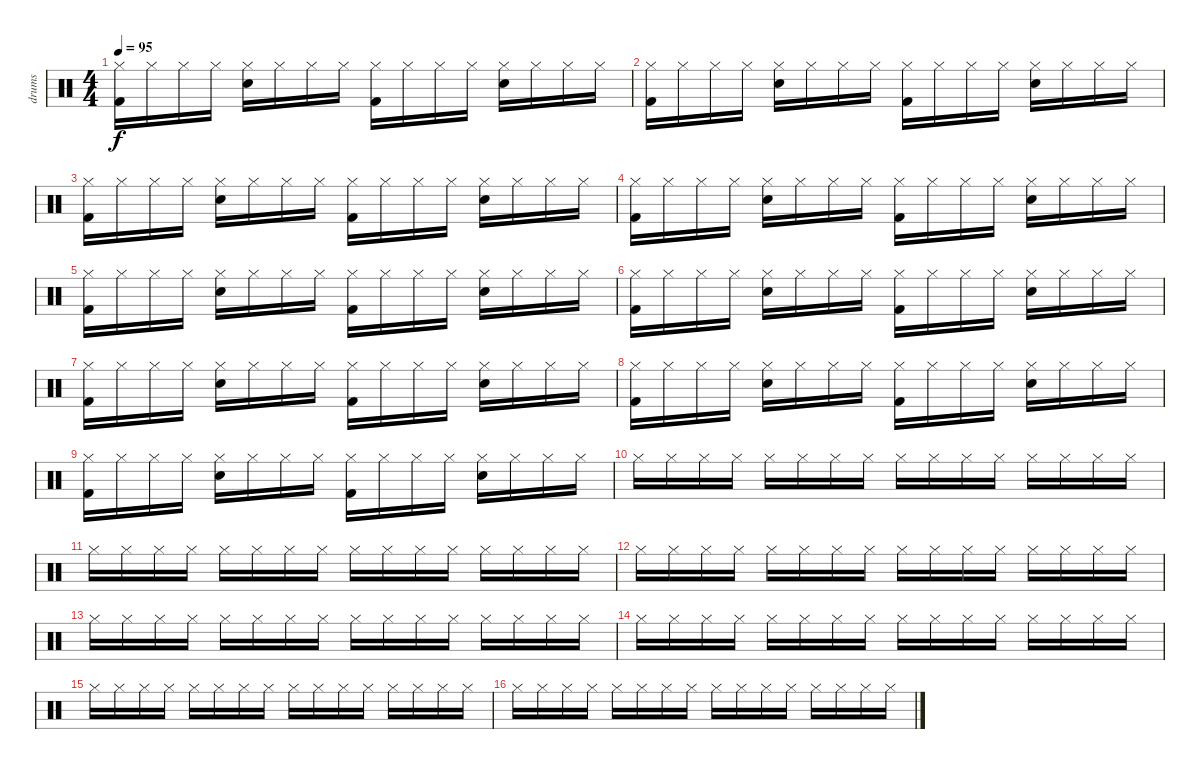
\track ("drums" "drums") {instrument percussion}
\staff {score}
\articulation defaults
\ts (4 4)
\tempo 95
\clef neutral
\ks c
("Kick (hit) 2" "Hi-Hat (closed)").16{dy f} "Hi-Hat (closed)".16 "Hi-Hat (closed)".16 "Hi-Hat (closed)".16 ("Snare (hit) 2" "Hi-Hat (closed)").16 "Hi-Hat (closed)".16 "Hi-Hat (closed)".16 "Hi-Hat (closed)".16 ("Kick (hit) 2" "Hi-Hat (closed)").16 "Hi-Hat (closed)".16 "Hi-Hat (closed)".16 "Hi-Hat (closed)".16 ("Snare (hit) 2" "Hi-Hat (closed)").16 "Hi-Hat (closed)".16 "Hi-Hat (closed)".16 "Hi-Hat (closed)".16 |
("Kick (hit) 2" "Hi-Hat (closed)").16 "Hi-Hat (closed)".16 "Hi-Hat (closed)".16 "Hi-Hat (closed)".16 ("Snare (hit) 2" "Hi-Hat (closed)").16 "Hi-Hat (closed)".16 "Hi-Hat (closed)".16 "Hi-Hat (closed)".16 ("Kick (hit) 2" "Hi-Hat (closed)").16 "Hi-Hat (closed)".16 "Hi-Hat (closed)".16 "Hi-Hat (closed)".16 ("Snare (hit) 2" "Hi-Hat (closed)").16 "Hi-Hat (closed)".16 "Hi-Hat (closed)".16 "Hi-Hat (closed)".16 |
("Kick (hit) 2" "Hi-Hat (closed)").16 "Hi-Hat (closed)".16 "Hi-Hat (closed)".16 "Hi-Hat (closed)".16 ("Snare (hit) 2" "Hi-Hat (closed)").16 "Hi-Hat (closed)".16 "Hi-Hat (closed)".16 "Hi-Hat (closed)".16 ("Kick (hit) 2" "Hi-Hat (closed)").16 "Hi-Hat (closed)".16 "Hi-Hat (closed)".16 "Hi-Hat (closed)".16 ("Snare (hit) 2" "Hi-Hat (closed)").16 "Hi-Hat (closed)".16 "Hi-Hat (closed)".16 "Hi-Hat (closed)".16 |
("Kick (hit) 2" "Hi-Hat (closed)").16 "Hi-Hat (closed)".16 "Hi-Hat (closed)".16 "Hi-Hat (closed)".16 ("Snare (hit) 2" "Hi-Hat (closed)").16 "Hi-Hat (closed)".16 "Hi-Hat (closed)".16 "Hi-Hat (closed)".16 ("Kick (hit) 2" "Hi-Hat (closed)").16 "Hi-Hat (closed)".16 "Hi-Hat (closed)".16 "Hi-Hat (closed)".16 ("Snare (hit) 2" "Hi-Hat (closed)").16 "Hi-Hat (closed)".16 "Hi-Hat (closed)".16 "Hi-Hat (closed)".16 |
("Kick (hit) 2" "Hi-Hat (closed)").16 "Hi-Hat (closed)".16 "Hi-Hat (closed)".16 "Hi-Hat (closed)".16 ("Snare (hit) 2" "Hi-Hat (closed)").16 "Hi-Hat (closed)".16 "Hi-Hat (closed)".16 "Hi-Hat (closed)".16 ("Kick (hit) 2" "Hi-Hat (closed)").16 "Hi-Hat (closed)".16 "Hi-Hat (closed)".16 "Hi-Hat (closed)".16 ("Snare (hit) 2" "Hi-Hat (closed)").16 "Hi-Hat (closed)".16 "Hi-Hat (closed)".16 "Hi-Hat (closed)".16 |
("Kick (hit) 2" "Hi-Hat (closed)").16 "Hi-Hat (closed)".16 "Hi-Hat (closed)".16 "Hi-Hat (closed)".16 ("Snare (hit) 2" "Hi-Hat (closed)").16 "Hi-Hat (closed)".16 "Hi-Hat (closed)".16 "Hi-Hat (closed)".16 ("Kick (hit) 2" "Hi-Hat (closed)").16 "Hi-Hat (closed)".16 "Hi-Hat (closed)".16 "Hi-Hat (closed)".16 ("Snare (hit) 2" "Hi-Hat (closed)").16 "Hi-Hat (closed)".16 "Hi-Hat (closed)".16 "Hi-Hat (closed)".16 |
("Kick (hit) 2" "Hi-Hat (closed)").16 "Hi-Hat (closed)".16 "Hi-Hat (closed)".16 "Hi-Hat (closed)".16 ("Snare (hit) 2" "Hi-Hat (closed)").16 "Hi-Hat (closed)".16 "Hi-Hat (closed)".16 "Hi-Hat (closed)".16 ("Kick (hit) 2" "Hi-Hat (closed)").16 "Hi-Hat (closed)".16 "Hi-Hat (closed)".16 "Hi-Hat (closed)".16 ("Snare (hit) 2" "Hi-Hat (closed)").16 "Hi-Hat (closed)".16 "Hi-Hat (closed)".16 "Hi-Hat (closed)".16 |
("Kick (hit) 2" "Hi-Hat (closed)").16 "Hi-Hat (closed)".16 "Hi-Hat (closed)".16 "Hi-Hat (closed)".16 ("Snare (hit) 2" "Hi-Hat (closed)").16 "Hi-Hat (closed)".16 "Hi-Hat (closed)".16 "Hi-Hat (closed)".16 ("Kick (hit) 2" "Hi-Hat (closed)").16 "Hi-Hat (closed)".16 "Hi-Hat (closed)".16 "Hi-Hat (closed)".16 ("Snare (hit) 2" "Hi-Hat (closed)").16 "Hi-Hat (closed)".16 "Hi-Hat (closed)".16 "Hi-Hat (closed)".16 |
("Kick (hit) 2" "Hi-Hat (closed)").16 "Hi-Hat (closed)".16 "Hi-Hat (closed)".16 "Hi-Hat (closed)".16 ("Snare (hit) 2" "Hi-Hat (closed)").16 "Hi-Hat (closed)".16 "Hi-Hat (closed)".16 "Hi-Hat (closed)".16 ("Kick (hit) 2" "Hi-Hat (closed)").16 "Hi-Hat (closed)".16 "Hi-Hat (closed)".16 "Hi-Hat (closed)".16 ("Snare (hit) 2" "Hi-Hat (closed)").16 "Hi-Hat (closed)".16 "Hi-Hat (closed)".16 "Hi-Hat (closed)".16 |
"Hi-Hat (closed)".16 "Hi-Hat (closed)".16 "Hi-Hat (closed)".16 "Hi-Hat (closed)".16 "Hi-Hat (closed)".16 "Hi-Hat (closed)".16 "Hi-Hat (closed)".16 "Hi-Hat (closed)".16 "Hi-Hat (closed)".16 "Hi-Hat (closed)".16 "Hi-Hat (closed)".16 "Hi-Hat (closed)".16 "Hi-Hat (closed)".16 "Hi-Hat (closed)".16 "Hi-Hat (closed)".16 "Hi-Hat (closed)".16 |
"Hi-Hat (closed)".16 "Hi-Hat (closed)".16 "Hi-Hat (closed)".16 "Hi-Hat (closed)".16 "Hi-Hat (closed)".16 "Hi-Hat (closed)".16 "Hi-Hat (closed)".16 "Hi-Hat (closed)".16 "Hi-Hat (closed)".16 "Hi-Hat (closed)".16 "Hi-Hat (closed)".16 "Hi-Hat (closed)".16 "Hi-Hat (closed)".16 "Hi-Hat (closed)".16 "Hi-Hat (closed)".16 "Hi-Hat (closed)".16 |
"Hi-Hat (closed)".16 "Hi-Hat (closed)".16 "Hi-Hat (closed)".16 "Hi-Hat (closed)".16 "Hi-Hat (closed)".16 "Hi-Hat (closed)".16 "Hi-Hat (closed)".16 "Hi-Hat (closed)".16 "Hi-Hat (closed)".16 "Hi-Hat (closed)".16 "Hi-Hat (closed)".16 "Hi-Hat (closed)".16 "Hi-Hat (closed)".16 "Hi-Hat (closed)".16 "Hi-Hat (closed)".16 "Hi-Hat (closed)".16 |
"Hi-Hat (closed)".16 "Hi-Hat (closed)".16 "Hi-Hat (closed)".16 "Hi-Hat (closed)".16 "Hi-Hat (closed)".16 "Hi-Hat (closed)".16 "Hi-Hat (closed)".16 "Hi-Hat (closed)".16 "Hi-Hat (closed)".16 "Hi-Hat (closed)".16 "Hi-Hat (closed)".16 "Hi-Hat (closed)".16 "Hi-Hat (closed)".16 "Hi-Hat (closed)".16 "Hi-Hat (closed)".16 "Hi-Hat (closed)".16 |
"Hi-Hat (closed)".16 "Hi-Hat (closed)".16 "Hi-Hat (closed)".16 "Hi-Hat (closed)".16 "Hi-Hat (closed)".16 "Hi-Hat (closed)".16 "Hi-Hat (closed)".16 "Hi-Hat (closed)".16 "Hi-Hat (closed)".16 "Hi-Hat (closed)".16 "Hi-Hat (closed)".16 "Hi-Hat (closed)".16 "Hi-Hat (closed)".16 "Hi-Hat (closed)".16 "Hi-Hat (closed)".16 "Hi-Hat (closed)".16 |
"Hi-Hat (closed)".16 "Hi-Hat (closed)".16 "Hi-Hat (closed)".16 "Hi-Hat (closed)".16 "Hi-Hat (closed)".16 "Hi-Hat (closed)".16 "Hi-Hat (closed)".16 "Hi-Hat (closed)".16 "Hi-Hat (closed)".16 "Hi-Hat (closed)".16 "Hi-Hat (closed)".16 "Hi-Hat (closed)".16 "Hi-Hat (closed)".16 "Hi-Hat (closed)".16 "Hi-Hat (closed)".16 "Hi-Hat (closed)".16 |
"Hi-Hat (closed)".16 "Hi-Hat (closed)".16 "Hi-Hat (closed)".16 "Hi-Hat (closed)".16 "Hi-Hat (closed)".16 "Hi-Hat (closed)".16 "Hi-Hat (closed)".16 "Hi-Hat (closed)".16 "Hi-Hat (closed)".16 "Hi-Hat (closed)".16 "Hi-Hat (closed)".16 "Hi-Hat (closed)".16 "Hi-Hat (closed)".16 "Hi-Hat (closed)".16 "Hi-Hat (closed)".16 "Hi-Hat (closed)".16
